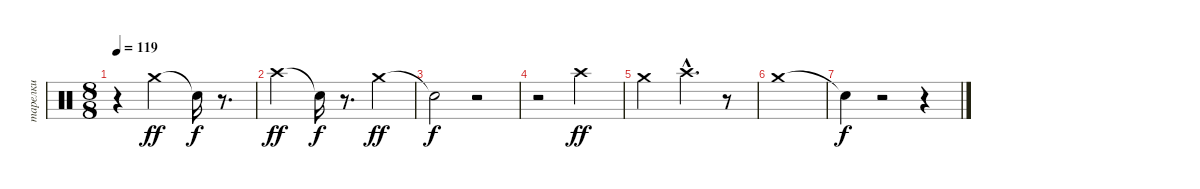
\track ("тарелки" "тарелки") {instrument percussion}
\staff {score}
\articulation defaults
\ts (8 8)
\tempo 119
\clef neutral
\ks c
r.4{dy f} "Crash medium (hit)".2{dy ff} "Snare (hit)"{t}.16{dy f} r.8{d} |
"Crash high (hit)".2{dy ff} "Snare (hit)"{t}.16{dy f} r.8{d} "Crash medium (hit)".4{dy ff} |
"Snare (hit)"{t}.2{dy f} r.2 |
r.2 "Crash high (hit)".2{dy ff} |
"Crash medium (hit)".2 "Crash high (hit)"{hac}.4{d} r.8 |
"Crash medium (hit)".1 |
"Snare (hit)"{t}.4{dy f} r.2 r.4
